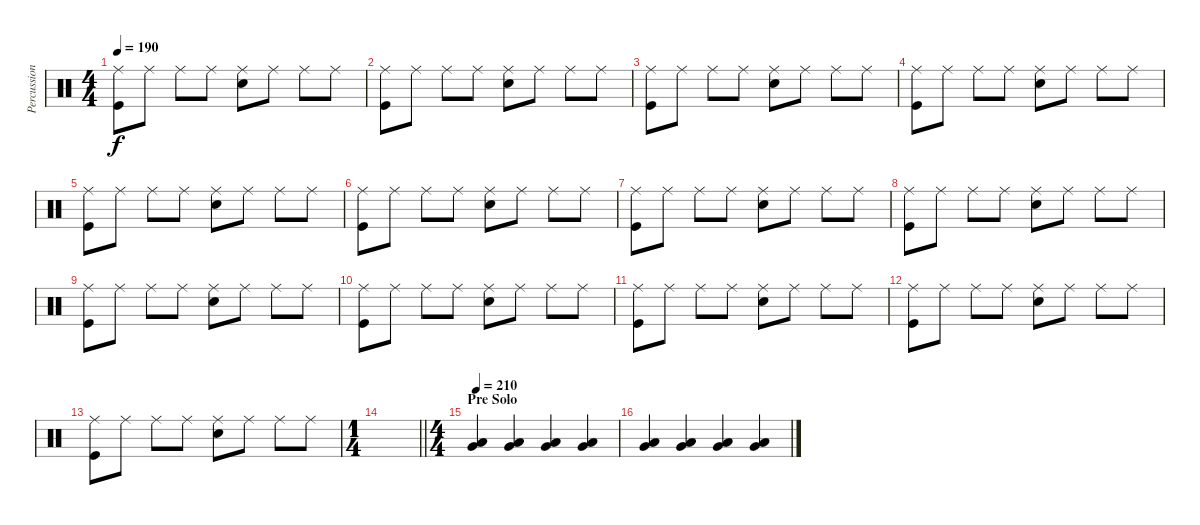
\track ("Percussion" "Percussion") {instrument percussion}
\staff {score}
\articulation defaults
\ts (4 4)
\tempo 190
\clef neutral
\ks c
("Ride (middle)" "Kick (hit)").8{dy f} "Ride (middle)".8 "Ride (middle)".8 "Ride (middle)".8 ("Ride (middle)" "Snare (hit) 2").8 "Ride (middle)".8 "Ride (middle)".8 "Ride (middle)".8 |
("Ride (middle)" "Kick (hit)").8 "Ride (middle)".8 "Ride (middle)".8 "Ride (middle)".8 ("Ride (middle)" "Snare (hit) 2").8 "Ride (middle)".8 "Ride (middle)".8 "Ride (middle)".8 |
("Ride (middle)" "Kick (hit)").8 "Ride (middle)".8 "Ride (middle)".8 "Ride (middle)".8 ("Ride (middle)" "Snare (hit) 2").8 "Ride (middle)".8 "Ride (middle)".8 "Ride (middle)".8 |
("Ride (middle)" "Kick (hit)").8 "Ride (middle)".8 "Ride (middle)".8 "Ride (middle)".8 ("Ride (middle)" "Snare (hit) 2").8 "Ride (middle)".8 "Ride (middle)".8 "Ride (middle)".8 |
("Ride (middle)" "Kick (hit)").8 "Ride (middle)".8 "Ride (middle)".8 "Ride (middle)".8 ("Ride (middle)" "Snare (hit) 2").8 "Ride (middle)".8 "Ride (middle)".8 "Ride (middle)".8 |
("Ride (middle)" "Kick (hit)").8 "Ride (middle)".8 "Ride (middle)".8 "Ride (middle)".8 ("Ride (middle)" "Snare (hit) 2").8 "Ride (middle)".8 "Ride (middle)".8 "Ride (middle)".8 |
("Ride (middle)" "Kick (hit)").8 "Ride (middle)".8 "Ride (middle)".8 "Ride (middle)".8 ("Ride (middle)" "Snare (hit) 2").8 "Ride (middle)".8 "Ride (middle)".8 "Ride (middle)".8 |
("Ride (middle)" "Kick (hit)").8 "Ride (middle)".8 "Ride (middle)".8 "Ride (middle)".8 ("Ride (middle)" "Snare (hit) 2").8 "Ride (middle)".8 "Ride (middle)".8 "Ride (middle)".8 |
("Ride (middle)" "Kick (hit)").8 "Ride (middle)".8 "Ride (middle)".8 "Ride (middle)".8 ("Ride (middle)" "Snare (hit) 2").8 "Ride (middle)".8 "Ride (middle)".8 "Ride (middle)".8 |
("Ride (middle)" "Kick (hit)").8 "Ride (middle)".8 "Ride (middle)".8 "Ride (middle)".8 ("Ride (middle)" "Snare (hit) 2").8 "Ride (middle)".8 "Ride (middle)".8 "Ride (middle)".8 |
("Ride (middle)" "Kick (hit)").8 "Ride (middle)".8 "Ride (middle)".8 "Ride (middle)".8 ("Ride (middle)" "Snare (hit) 2").8 "Ride (middle)".8 "Ride (middle)".8 "Ride (middle)".8 |
("Ride (middle)" "Kick (hit)").8 "Ride (middle)".8 "Ride (middle)".8 "Ride (middle)".8 ("Ride (middle)" "Snare (hit) 2").8 "Ride (middle)".8 "Ride (middle)".8 "Ride (middle)".8 |
("Ride (middle)" "Kick (hit)").8 "Ride (middle)".8 "Ride (middle)".8 "Ride (middle)".8 ("Ride (middle)" "Snare (hit) 2").8 "Ride (middle)".8 "Ride (middle)".8 "Ride (middle)".8 |
\ts (1 4)
\barLineRight lightlight
|
\ts (4 4)
\section ("" "Pre Solo")
\tempo 210
("Very Low Tom (hit)" "Low Floor Tom (hit)").4 ("Very Low Tom (hit)" "Low Floor Tom (hit)").4 ("Very Low Tom (hit)" "Low Floor Tom (hit)").4 ("Very Low Tom (hit)" "Low Floor Tom (hit)").4 |
("Very Low Tom (hit)" "Low Floor Tom (hit)").4 ("Very Low Tom (hit)" "Low Floor Tom (hit)").4 ("Very Low Tom (hit)" "Low Floor Tom (hit)").4 ("Very Low Tom (hit)" "Low Floor Tom (hit)").4
